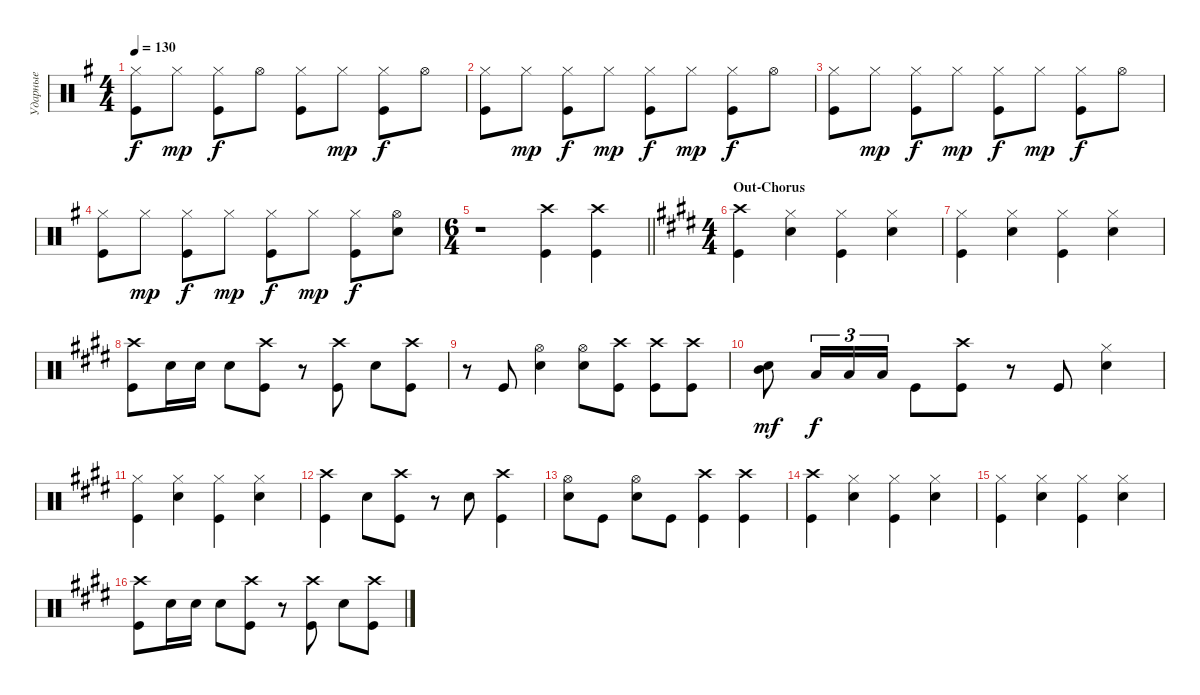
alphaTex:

\track ("Ударные" "Ударные") {instrument percussion}
\staff {score}
\articulation defaults
\ts (4 4)
\tempo 130
\clef neutral
\ks eminor
("Hi-Hat (closed)" "Kick (hit)").8{dy f} "Hi-Hat (closed)".8{dy mp} ("Hi-Hat (closed)" "Kick (hit)").8{dy f} "Hi-Hat (open)".8 ("Hi-Hat (closed)" "Kick (hit)").8 "Hi-Hat (closed)".8{dy mp} ("Hi-Hat (closed)" "Kick (hit)").8{dy f} "Hi-Hat (open)".8 |
("Hi-Hat (closed)" "Kick (hit)").8 "Hi-Hat (closed)".8{dy mp} ("Hi-Hat (closed)" "Kick (hit)").8{dy f} "Hi-Hat (closed)".8{dy mp} ("Hi-Hat (closed)" "Kick (hit)").8{dy f} "Hi-Hat (closed)".8{dy mp} ("Hi-Hat (closed)" "Kick (hit)").8{dy f} "Hi-Hat (open)".8 |
("Hi-Hat (closed)" "Kick (hit)").8 "Hi-Hat (closed)".8{dy mp} ("Hi-Hat (closed)" "Kick (hit)").8{dy f} "Hi-Hat (closed)".8{dy mp} ("Hi-Hat (closed)" "Kick (hit)").8{dy f} "Hi-Hat (closed)".8{dy mp} ("Hi-Hat (closed)" "Kick (hit)").8{dy f} "Hi-Hat (open)".8 |
("Hi-Hat (closed)" "Kick (hit)").8 "Hi-Hat (closed)".8{dy mp} ("Hi-Hat (closed)" "Kick (hit)").8{dy f} "Hi-Hat (closed)".8{dy mp} ("Hi-Hat (closed)" "Kick (hit)").8{dy f} "Hi-Hat (closed)".8{dy mp} ("Hi-Hat (closed)" "Kick (hit)").8{dy f} ("Snare (hit) 2" "Hi-Hat (open)").8 |
\ts (6 4)
\barLineRight lightlight
r.1 ("Kick (hit)" "Crash high (hit)").4 ("Kick (hit)" "Crash high (hit)").4 |
\ts (4 4)
\section ("" "Out-Chorus")
\ks c#minor
("Kick (hit)" "Crash high (hit)").4 ("Snare (hit) 2" "Hi-Hat (closed)").4 ("Kick (hit)" "Hi-Hat (closed)").4 ("Snare (hit) 2" "Hi-Hat (closed)").4 |
("Kick (hit)" "Hi-Hat (closed)").4 ("Snare (hit) 2" "Hi-Hat (closed)").4 ("Kick (hit)" "Hi-Hat (closed)").4 ("Snare (hit) 2" "Hi-Hat (closed)").4 |
("Kick (hit)" "Crash high (hit)").8 "Snare (hit) 2".16 "Snare (hit) 2".16 "Snare (hit) 2".8 ("Kick (hit)" "Crash high (hit)").8 r.8 ("Kick (hit)" "Crash high (hit)").8 "Snare (hit) 2".8 ("Kick (hit)" "Crash high (hit)").8 |
r.8 "Kick (hit)".8 ("Snare (hit) 2" "Hi-Hat (open)").4 ("Snare (hit) 2" "Hi-Hat (open)").8 ("Crash high (hit)" "Kick (hit)").8 ("Kick (hit)" "Crash high (hit)").8 ("Kick (hit)" "Crash high (hit)").8 |
("Mid Tom (hit)" "Snare (hit) 2").8{bd 120 dy mf} "Low Tom (hit)".16{tu (3 2) dy f} "Low Tom (hit)".16{tu (3 2)} "Low Tom (hit)".16{tu (3 2)} "Kick (hit)".8 ("Kick (hit)" "Crash high (hit)").8 r.8 "Kick (hit)".8 ("Snare (hit) 2" "Hi-Hat (closed)").4 |
("Kick (hit)" "Hi-Hat (closed)").4 ("Snare (hit) 2" "Hi-Hat (closed)").4 ("Kick (hit)" "Hi-Hat (closed)").4 ("Snare (hit) 2" "Hi-Hat (closed)").4 |
("Kick (hit)" "Crash high (hit)").4 "Snare (hit) 2".8 ("Kick (hit)" "Crash high (hit)").8 r.8 "Snare (hit) 2".8 ("Kick (hit)" "Crash high (hit)").4 |
("Snare (hit) 2" "Hi-Hat (open)").8 "Kick (hit)".8 ("Snare (hit) 2" "Hi-Hat (open)").8 "Kick (hit)".8 ("Kick (hit)" "Crash high (hit)").4 ("Kick (hit)" "Crash high (hit)").4 |
("Kick (hit)" "Crash high (hit)").4 ("Snare (hit) 2" "Hi-Hat (closed)").4 ("Kick (hit)" "Hi-Hat (closed)").4 ("Snare (hit) 2" "Hi-Hat (closed)").4 |
("Kick (hit)" "Hi-Hat (closed)").4 ("Snare (hit) 2" "Hi-Hat (closed)").4 ("Kick (hit)" "Hi-Hat (closed)").4 ("Snare (hit) 2" "Hi-Hat (closed)").4 |
("Kick (hit)" "Crash high (hit)").8 "Snare (hit) 2".16 "Snare (hit) 2".16 "Snare (hit) 2".8 ("Kick (hit)" "Crash high (hit)").8 r.8 ("Kick (hit)" "Crash high (hit)").8 "Snare (hit) 2".8 ("Kick (hit)" "Crash high (hit)").8
